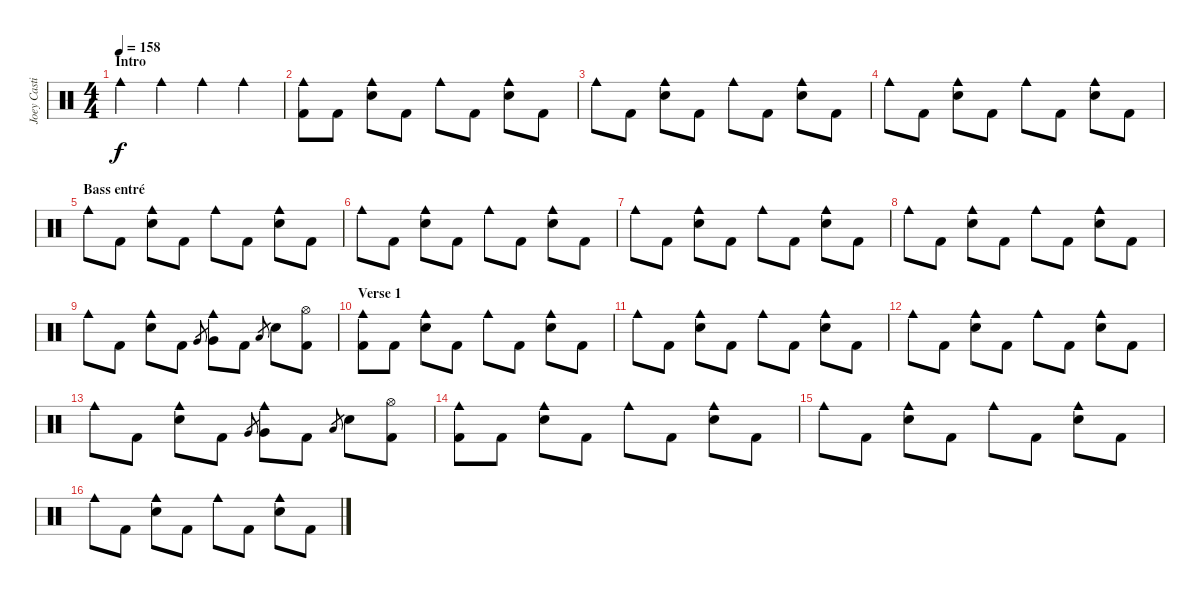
\track ("Joey Castillo" "Joey Casti") {instrument percussion}
\staff {score}
\articulation defaults
\ts (4 4)
\section ("" "Intro")
\tempo 158
\clef neutral
\ks c "Cowbell medium (hit)".4{dy f} "Cowbell medium (hit)".4 "Cowbell medium (hit)".4 "Cowbell medium (hit)".4
|
("Cowbell medium (hit)" "Kick (hit) 2").8 "Kick (hit) 2".8 ("Cowbell medium (hit)" "Electric Snare (hit)").8 "Kick (hit) 2".8 "Cowbell medium (hit)".8 "Kick (hit) 2".8 ("Cowbell medium (hit)" "Electric Snare (hit)").8 "Kick (hit) 2".8 |
"Cowbell medium (hit)".8 "Kick (hit) 2".8 ("Cowbell medium (hit)" "Electric Snare (hit)").8 "Kick (hit) 2".8 "Cowbell medium (hit)".8 "Kick (hit) 2".8 ("Cowbell medium (hit)" "Electric Snare (hit)").8 "Kick (hit) 2".8 |
"Cowbell medium (hit)".8 "Kick (hit) 2".8 ("Cowbell medium (hit)" "Electric Snare (hit)").8 "Kick (hit) 2".8 "Cowbell medium (hit)".8 "Kick (hit) 2".8 ("Cowbell medium (hit)" "Electric Snare (hit)").8 "Kick (hit) 2".8 |
\section ("" "Bass entré")
"Cowbell medium (hit)".8 "Kick (hit) 2".8 ("Cowbell medium (hit)" "Electric Snare (hit)").8 "Kick (hit) 2".8 "Cowbell medium (hit)".8 "Kick (hit) 2".8 ("Cowbell medium (hit)" "Electric Snare (hit)").8 "Kick (hit) 2".8 |
"Cowbell medium (hit)".8 "Kick (hit) 2".8 ("Cowbell medium (hit)" "Electric Snare (hit)").8 "Kick (hit) 2".8 "Cowbell medium (hit)".8 "Kick (hit) 2".8 ("Cowbell medium (hit)" "Electric Snare (hit)").8 "Kick (hit) 2".8 |
"Cowbell medium (hit)".8 "Kick (hit) 2".8 ("Cowbell medium (hit)" "Electric Snare (hit)").8 "Kick (hit) 2".8 "Cowbell medium (hit)".8 "Kick (hit) 2".8 ("Cowbell medium (hit)" "Electric Snare (hit)").8 "Kick (hit) 2".8 |
"Cowbell medium (hit)".8 "Kick (hit) 2".8 ("Cowbell medium (hit)" "Electric Snare (hit)").8 "Kick (hit) 2".8 "Cowbell medium (hit)".8 "Kick (hit) 2".8 ("Cowbell medium (hit)" "Electric Snare (hit)").8 "Kick (hit) 2".8 |
"Cowbell medium (hit)".8 "Kick (hit) 2".8 ("Cowbell medium (hit)" "Electric Snare (hit)").8 "Kick (hit) 2".8 "Very Low Tom (hit)".8{gr} ("Cowbell medium (hit)" "Very Low Tom (hit)").8 "Kick (hit) 2".8 "Low Floor Tom (hit)".8{gr} "Electric Snare (hit)".8 ("Hi-Hat (open)" "Kick (hit) 2").8 |
\section ("" "Verse 1")
("Cowbell medium (hit)" "Kick (hit) 2").8 "Kick (hit) 2".8 ("Cowbell medium (hit)" "Electric Snare (hit)").8 "Kick (hit) 2".8 "Cowbell medium (hit)".8 "Kick (hit) 2".8 ("Cowbell medium (hit)" "Electric Snare (hit)").8 "Kick (hit) 2".8 |
"Cowbell medium (hit)".8 "Kick (hit) 2".8 ("Cowbell medium (hit)" "Electric Snare (hit)").8 "Kick (hit) 2".8 "Cowbell medium (hit)".8 "Kick (hit) 2".8 ("Cowbell medium (hit)" "Electric Snare (hit)").8 "Kick (hit) 2".8 |
"Cowbell medium (hit)".8 "Kick (hit) 2".8 ("Cowbell medium (hit)" "Electric Snare (hit)").8 "Kick (hit) 2".8 "Cowbell medium (hit)".8 "Kick (hit) 2".8 ("Cowbell medium (hit)" "Electric Snare (hit)").8 "Kick (hit) 2".8 |
"Cowbell medium (hit)".8 "Kick (hit) 2".8 ("Cowbell medium (hit)" "Electric Snare (hit)").8 "Kick (hit) 2".8 "Very Low Tom (hit)".8{gr} ("Cowbell medium (hit)" "Very Low Tom (hit)").8 "Kick (hit) 2".8 "Low Floor Tom (hit)".8{gr} "Electric Snare (hit)".8 ("Hi-Hat (open)" "Kick (hit) 2").8 |
("Cowbell medium (hit)" "Kick (hit) 2").8 "Kick (hit) 2".8 ("Cowbell medium (hit)" "Electric Snare (hit)").8 "Kick (hit) 2".8 "Cowbell medium (hit)".8 "Kick (hit) 2".8 ("Cowbell medium (hit)" "Electric Snare (hit)").8 "Kick (hit) 2".8 |
"Cowbell medium (hit)".8 "Kick (hit) 2".8 ("Cowbell medium (hit)" "Electric Snare (hit)").8 "Kick (hit) 2".8 "Cowbell medium (hit)".8 "Kick (hit) 2".8 ("Cowbell medium (hit)" "Electric Snare (hit)").8 "Kick (hit) 2".8 |
"Cowbell medium (hit)".8 "Kick (hit) 2".8 ("Cowbell medium (hit)" "Electric Snare (hit)").8 "Kick (hit) 2".8 "Cowbell medium (hit)".8 "Kick (hit) 2".8 ("Cowbell medium (hit)" "Electric Snare (hit)").8 "Kick (hit) 2".8
